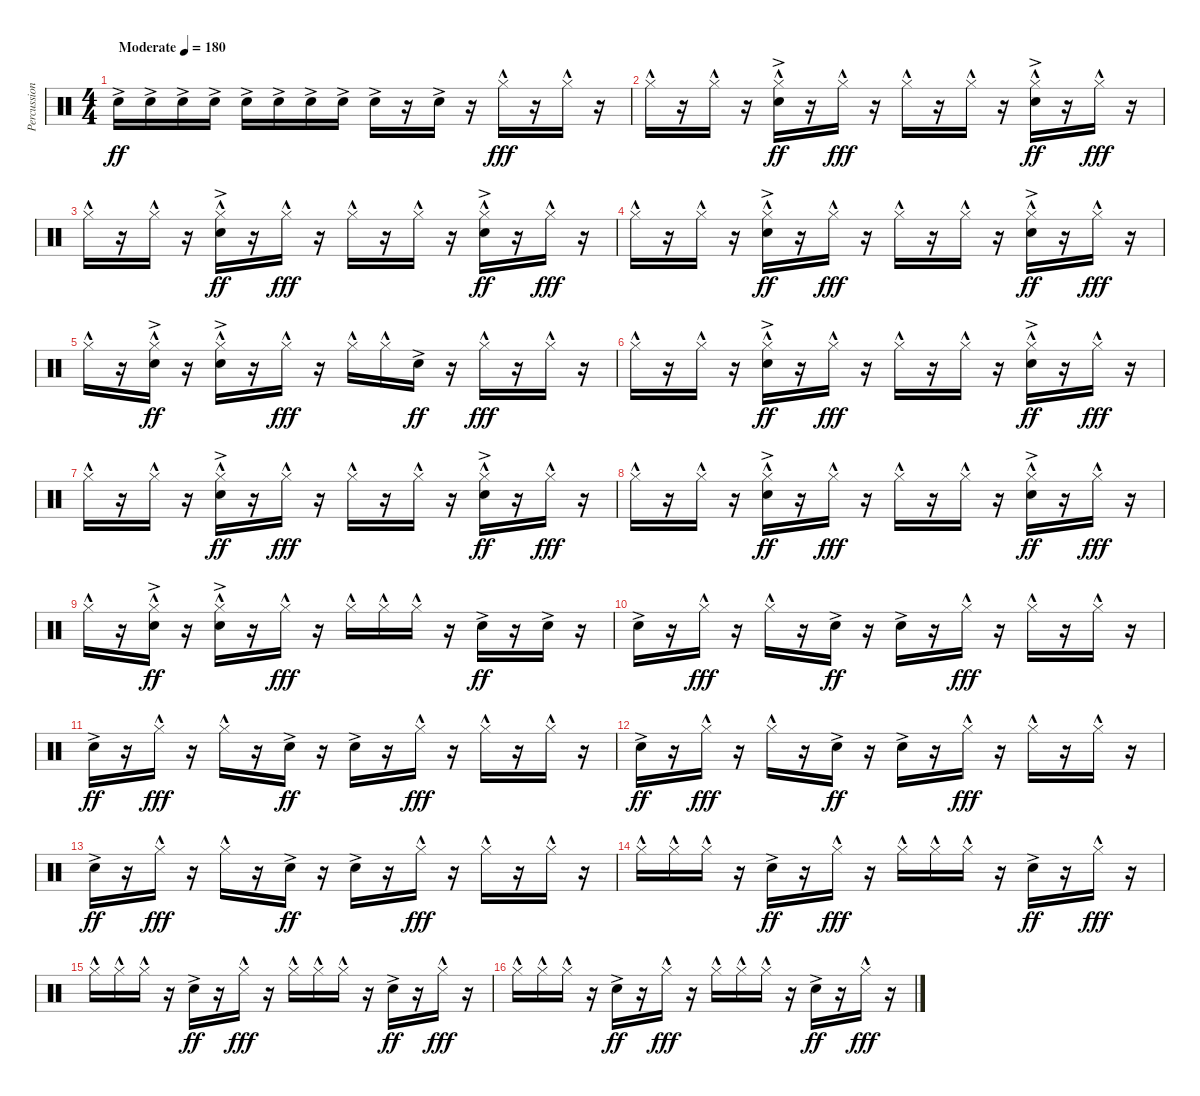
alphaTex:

\track ("Percussion" "Percussion") {instrument percussion}
\staff {score}
\articulation defaults
\ts (4 4)
\tempo (180 "Moderate")
\clef neutral
\ks c "Snare (hit) 2"{ac}.16{dy ff} "Snare (hit) 2"{ac}.16 "Snare (hit) 2"{ac}.16 "Snare (hit) 2"{ac}.16 "Snare (hit) 2"{ac}.16 "Snare (hit) 2"{ac}.16 "Snare (hit) 2"{ac}.16 "Snare (hit) 2"{ac}.16 "Snare (hit) 2"{ac}.16
r.16 "Snare (hit) 2"{ac}.16 r.16 "Hi-Hat (closed)"{hac}.16{dy fff} r.16 "Hi-Hat (closed)"{hac}.16 r.16 |
"Hi-Hat (closed)"{hac}.16 r.16 "Hi-Hat (closed)"{hac}.16 r.16 ("Hi-Hat (closed)"{hac} "Snare (hit) 2"{ac}).16{dy ff} r.16 "Hi-Hat (closed)"{hac}.16{dy fff} r.16 "Hi-Hat (closed)"{hac}.16 r.16 "Hi-Hat (closed)"{hac}.16 r.16 ("Hi-Hat (closed)"{hac} "Snare (hit) 2"{ac}).16{dy ff} r.16 "Hi-Hat (closed)"{hac}.16{dy fff} r.16 |
"Hi-Hat (closed)"{hac}.16 r.16 "Hi-Hat (closed)"{hac}.16 r.16 ("Hi-Hat (closed)"{hac} "Snare (hit) 2"{ac}).16{dy ff} r.16 "Hi-Hat (closed)"{hac}.16{dy fff} r.16 "Hi-Hat (closed)"{hac}.16 r.16 "Hi-Hat (closed)"{hac}.16 r.16 ("Hi-Hat (closed)"{hac} "Snare (hit) 2"{ac}).16{dy ff} r.16 "Hi-Hat (closed)"{hac}.16{dy fff} r.16 |
"Hi-Hat (closed)"{hac}.16 r.16 "Hi-Hat (closed)"{hac}.16 r.16 ("Hi-Hat (closed)"{hac} "Snare (hit) 2"{ac}).16{dy ff} r.16 "Hi-Hat (closed)"{hac}.16{dy fff} r.16 "Hi-Hat (closed)"{hac}.16 r.16 "Hi-Hat (closed)"{hac}.16 r.16 ("Hi-Hat (closed)"{hac} "Snare (hit) 2"{ac}).16{dy ff} r.16 "Hi-Hat (closed)"{hac}.16{dy fff} r.16 |
"Hi-Hat (closed)"{hac}.16 r.16 ("Hi-Hat (closed)"{hac} "Snare (hit) 2"{ac}).16{dy ff} r.16 ("Hi-Hat (closed)"{hac} "Snare (hit) 2"{ac}).16 r.16 "Hi-Hat (closed)"{hac}.16{dy fff} r.16 "Hi-Hat (closed)"{hac}.16 "Hi-Hat (closed)"{hac}.16 "Snare (hit) 2"{ac}.16{dy ff} r.16 "Hi-Hat (closed)"{hac}.16{dy fff} r.16 "Hi-Hat (closed)"{hac}.16 r.16 |
"Hi-Hat (closed)"{hac}.16 r.16 "Hi-Hat (closed)"{hac}.16 r.16 ("Hi-Hat (closed)"{hac} "Snare (hit) 2"{ac}).16{dy ff} r.16 "Hi-Hat (closed)"{hac}.16{dy fff} r.16 "Hi-Hat (closed)"{hac}.16 r.16 "Hi-Hat (closed)"{hac}.16 r.16 ("Hi-Hat (closed)"{hac} "Snare (hit) 2"{ac}).16{dy ff} r.16 "Hi-Hat (closed)"{hac}.16{dy fff} r.16 |
"Hi-Hat (closed)"{hac}.16 r.16 "Hi-Hat (closed)"{hac}.16 r.16 ("Hi-Hat (closed)"{hac} "Snare (hit) 2"{ac}).16{dy ff} r.16 "Hi-Hat (closed)"{hac}.16{dy fff} r.16 "Hi-Hat (closed)"{hac}.16 r.16 "Hi-Hat (closed)"{hac}.16 r.16 ("Hi-Hat (closed)"{hac} "Snare (hit) 2"{ac}).16{dy ff} r.16 "Hi-Hat (closed)"{hac}.16{dy fff} r.16 |
"Hi-Hat (closed)"{hac}.16 r.16 "Hi-Hat (closed)"{hac}.16 r.16 ("Hi-Hat (closed)"{hac} "Snare (hit) 2"{ac}).16{dy ff} r.16 "Hi-Hat (closed)"{hac}.16{dy fff} r.16 "Hi-Hat (closed)"{hac}.16 r.16 "Hi-Hat (closed)"{hac}.16 r.16 ("Hi-Hat (closed)"{hac} "Snare (hit) 2"{ac}).16{dy ff} r.16 "Hi-Hat (closed)"{hac}.16{dy fff} r.16 |
"Hi-Hat (closed)"{hac}.16 r.16 ("Hi-Hat (closed)"{hac} "Snare (hit) 2"{ac}).16{dy ff} r.16 ("Hi-Hat (closed)"{hac} "Snare (hit) 2"{ac}).16 r.16 "Hi-Hat (closed)"{hac}.16{dy fff} r.16 "Hi-Hat (closed)"{hac}.16 "Hi-Hat (closed)"{hac}.16 "Hi-Hat (closed)"{hac}.16 r.16 "Snare (hit) 2"{ac}.16{dy ff} r.16 "Snare (hit) 2"{ac}.16 r.16 |
"Snare (hit) 2"{ac}.16 r.16 "Hi-Hat (closed)"{hac}.16{dy fff} r.16 "Hi-Hat (closed)"{hac}.16 r.16 "Snare (hit) 2"{ac}.16{dy ff} r.16 "Snare (hit) 2"{ac}.16 r.16 "Hi-Hat (closed)"{hac}.16{dy fff} r.16 "Hi-Hat (closed)"{hac}.16 r.16 "Hi-Hat (closed)"{hac}.16 r.16 |
"Snare (hit) 2"{ac}.16{dy ff} r.16 "Hi-Hat (closed)"{hac}.16{dy fff} r.16 "Hi-Hat (closed)"{hac}.16 r.16 "Snare (hit) 2"{ac}.16{dy ff} r.16 "Snare (hit) 2"{ac}.16 r.16 "Hi-Hat (closed)"{hac}.16{dy fff} r.16 "Hi-Hat (closed)"{hac}.16 r.16 "Hi-Hat (closed)"{hac}.16 r.16 |
"Snare (hit) 2"{ac}.16{dy ff} r.16 "Hi-Hat (closed)"{hac}.16{dy fff} r.16 "Hi-Hat (closed)"{hac}.16 r.16 "Snare (hit) 2"{ac}.16{dy ff} r.16 "Snare (hit) 2"{ac}.16 r.16 "Hi-Hat (closed)"{hac}.16{dy fff} r.16 "Hi-Hat (closed)"{hac}.16 r.16 "Hi-Hat (closed)"{hac}.16 r.16 |
"Snare (hit) 2"{ac}.16{dy ff} r.16 "Hi-Hat (closed)"{hac}.16{dy fff} r.16 "Hi-Hat (closed)"{hac}.16 r.16 "Snare (hit) 2"{ac}.16{dy ff} r.16 "Snare (hit) 2"{ac}.16 r.16 "Hi-Hat (closed)"{hac}.16{dy fff} r.16 "Hi-Hat (closed)"{hac}.16 r.16 "Hi-Hat (closed)"{hac}.16 r.16 |
"Hi-Hat (closed)"{hac}.16 "Hi-Hat (closed)"{hac}.16 "Hi-Hat (closed)"{hac}.16 r.16 "Snare (hit) 2"{ac}.16{dy ff} r.16 "Hi-Hat (closed)"{hac}.16{dy fff} r.16 "Hi-Hat (closed)"{hac}.16 "Hi-Hat (closed)"{hac}.16 "Hi-Hat (closed)"{hac}.16 r.16 "Snare (hit) 2"{ac}.16{dy ff} r.16 "Hi-Hat (closed)"{hac}.16{dy fff} r.16 |
"Hi-Hat (closed)"{hac}.16 "Hi-Hat (closed)"{hac}.16 "Hi-Hat (closed)"{hac}.16 r.16 "Snare (hit) 2"{ac}.16{dy ff} r.16 "Hi-Hat (closed)"{hac}.16{dy fff} r.16 "Hi-Hat (closed)"{hac}.16 "Hi-Hat (closed)"{hac}.16 "Hi-Hat (closed)"{hac}.16 r.16 "Snare (hit) 2"{ac}.16{dy ff} r.16 "Hi-Hat (closed)"{hac}.16{dy fff} r.16 |
"Hi-Hat (closed)"{hac}.16 "Hi-Hat (closed)"{hac}.16 "Hi-Hat (closed)"{hac}.16 r.16 "Snare (hit) 2"{ac}.16{dy ff} r.16 "Hi-Hat (closed)"{hac}.16{dy fff} r.16 "Hi-Hat (closed)"{hac}.16 "Hi-Hat (closed)"{hac}.16 "Hi-Hat (closed)"{hac}.16 r.16 "Snare (hit) 2"{ac}.16{dy ff} r.16 "Hi-Hat (closed)"{hac}.16{dy fff} r.16
